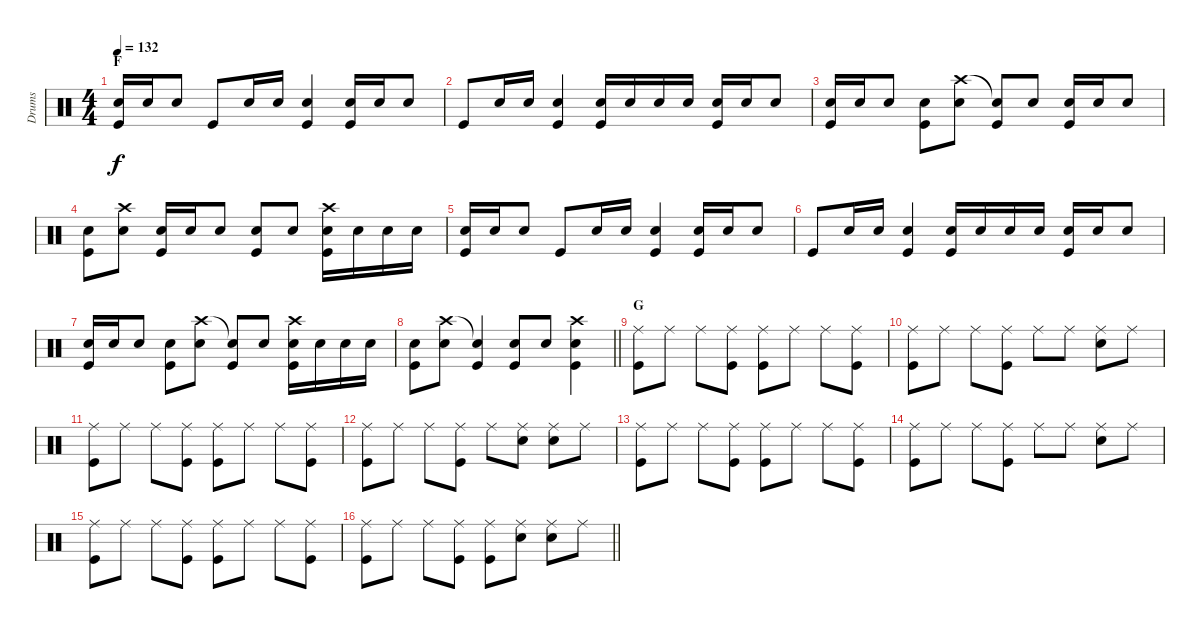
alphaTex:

\track ("Drums" "Drums") {instrument percussion}
\staff {score}
\articulation defaults
\ts (4 4)
\section ("" "F")
\tempo 132
\clef neutral
\ks c
("Electric Snare (hit)" "Kick (hit)").16{dy f} "Electric Snare (hit)".16 "Electric Snare (hit)".8 "Kick (hit)".8 "Electric Snare (hit)".16 "Electric Snare (hit)".16 ("Electric Snare (hit)" "Kick (hit)").4 ("Electric Snare (hit)" "Kick (hit)").16 "Electric Snare (hit)".16 "Electric Snare (hit)".8 |
"Kick (hit)".8 "Electric Snare (hit)".16 "Electric Snare (hit)".16 ("Electric Snare (hit)" "Kick (hit)").4 ("Electric Snare (hit)" "Kick (hit)").16 "Electric Snare (hit)".16 "Electric Snare (hit)".16 "Electric Snare (hit)".16 ("Electric Snare (hit)" "Kick (hit)").16 "Electric Snare (hit)".16 "Electric Snare (hit)".8 |
("Electric Snare (hit)" "Kick (hit)").16 "Electric Snare (hit)".16 "Electric Snare (hit)".8 ("Electric Snare (hit)" "Kick (hit)").8 ("Crash high (hit)" "Electric Snare (hit)").8 ("Snare (hit)"{t} "Kick (hit)").8 "Electric Snare (hit)".8 ("Electric Snare (hit)" "Kick (hit)").16 "Electric Snare (hit)".16 "Electric Snare (hit)".8 |
("Electric Snare (hit)" "Kick (hit)").8 ("Crash high (hit)" "Electric Snare (hit)").8 ("Electric Snare (hit)" "Kick (hit)").16 "Electric Snare (hit)".16 "Electric Snare (hit)".8 ("Electric Snare (hit)" "Kick (hit)").8 "Electric Snare (hit)".8 ("Crash high (hit)" "Electric Snare (hit)" "Kick (hit)").16 "Electric Snare (hit)".16 "Electric Snare (hit)".16 "Electric Snare (hit)".16 |
("Electric Snare (hit)" "Kick (hit)").16 "Electric Snare (hit)".16 "Electric Snare (hit)".8 "Kick (hit)".8 "Electric Snare (hit)".16 "Electric Snare (hit)".16 ("Electric Snare (hit)" "Kick (hit)").4 ("Electric Snare (hit)" "Kick (hit)").16 "Electric Snare (hit)".16 "Electric Snare (hit)".8 |
"Kick (hit)".8 "Electric Snare (hit)".16 "Electric Snare (hit)".16 ("Electric Snare (hit)" "Kick (hit)").4 ("Electric Snare (hit)" "Kick (hit)").16 "Electric Snare (hit)".16 "Electric Snare (hit)".16 "Electric Snare (hit)".16 ("Electric Snare (hit)" "Kick (hit)").16 "Electric Snare (hit)".16 "Electric Snare (hit)".8 |
("Electric Snare (hit)" "Kick (hit)").16 "Electric Snare (hit)".16 "Electric Snare (hit)".8 ("Electric Snare (hit)" "Kick (hit)").8 ("Crash high (hit)" "Electric Snare (hit)").8 ("Snare (hit)"{t} "Kick (hit)").8 "Electric Snare (hit)".8 ("Crash high (hit)" "Electric Snare (hit)" "Kick (hit)").16 "Electric Snare (hit)".16 "Electric Snare (hit)".16 "Electric Snare (hit)".16 |
\barLineRight lightlight
("Electric Snare (hit)" "Kick (hit)").8 ("Crash high (hit)" "Electric Snare (hit)").8 ("Snare (hit)"{t} "Kick (hit)").4 ("Electric Snare (hit)" "Kick (hit)").8 "Electric Snare (hit)".8 ("Crash high (hit)" "Electric Snare (hit)" "Kick (hit)").4 |
\section ("" "G")
("Ride (middle)" "Kick (hit)").8 "Ride (middle)".8 "Ride (middle)".8 ("Ride (middle)" "Kick (hit)").8 ("Ride (middle)" "Kick (hit)").8 "Ride (middle)".8 "Ride (middle)".8 ("Ride (middle)" "Kick (hit)").8 |
("Ride (middle)" "Kick (hit)").8 "Ride (middle)".8 "Ride (middle)".8 ("Ride (middle)" "Kick (hit)").8 "Ride (middle)".8 "Ride (middle)".8 ("Ride (middle)" "Electric Snare (hit)").8 "Ride (middle)".8 |
("Ride (middle)" "Kick (hit)").8 "Ride (middle)".8 "Ride (middle)".8 ("Ride (middle)" "Kick (hit)").8 ("Ride (middle)" "Kick (hit)").8 "Ride (middle)".8 "Ride (middle)".8 ("Ride (middle)" "Kick (hit)").8 |
("Ride (middle)" "Kick (hit)").8 "Ride (middle)".8 "Ride (middle)".8 ("Ride (middle)" "Kick (hit)").8 "Ride (middle)".8 ("Ride (middle)" "Electric Snare (hit)").8 ("Ride (middle)" "Electric Snare (hit)").8 "Ride (middle)".8 |
("Ride (middle)" "Kick (hit)").8 "Ride (middle)".8 "Ride (middle)".8 ("Ride (middle)" "Kick (hit)").8 ("Ride (middle)" "Kick (hit)").8 "Ride (middle)".8 "Ride (middle)".8 ("Ride (middle)" "Kick (hit)").8 |
("Ride (middle)" "Kick (hit)").8 "Ride (middle)".8 "Ride (middle)".8 ("Ride (middle)" "Kick (hit)").8 "Ride (middle)".8 "Ride (middle)".8 ("Ride (middle)" "Electric Snare (hit)").8 "Ride (middle)".8 |
("Ride (middle)" "Kick (hit)").8 "Ride (middle)".8 "Ride (middle)".8 ("Ride (middle)" "Kick (hit)").8 ("Ride (middle)" "Kick (hit)").8 "Ride (middle)".8 "Ride (middle)".8 ("Ride (middle)" "Kick (hit)").8 |
\barLineRight lightlight
("Ride (middle)" "Kick (hit)").8 "Ride (middle)".8 "Ride (middle)".8 ("Ride (middle)" "Kick (hit)").8 ("Ride (middle)" "Kick (hit)").8 ("Ride (middle)" "Electric Snare (hit)").8 ("Ride (middle)" "Electric Snare (hit)").8 "Ride (middle)".8
